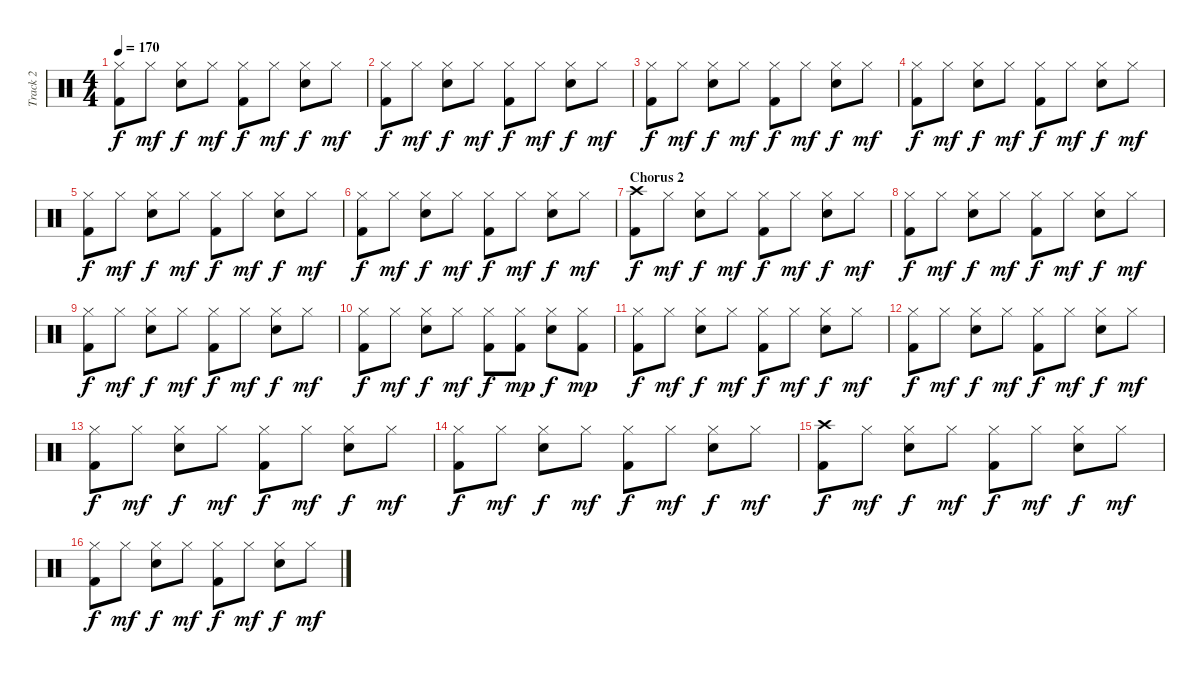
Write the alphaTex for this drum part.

\track ("Track 2" "Track 2") {instrument percussion}
\staff {score}
\articulation defaults
\ts (4 4)
\tempo 170
\clef neutral
\ks c
("Hi-Hat (closed)" "Kick (hit) 2").8{dy f} "Hi-Hat (closed)".8{dy mf} ("Hi-Hat (closed)" "Electric Snare (hit)").8{dy f} "Hi-Hat (closed)".8{dy mf} ("Hi-Hat (closed)" "Kick (hit) 2").8{dy f} "Hi-Hat (closed)".8{dy mf} ("Hi-Hat (closed)" "Electric Snare (hit)").8{dy f} "Hi-Hat (closed)".8{dy mf} |
("Hi-Hat (closed)" "Kick (hit) 2").8{dy f} "Hi-Hat (closed)".8{dy mf} ("Hi-Hat (closed)" "Electric Snare (hit)").8{dy f} "Hi-Hat (closed)".8{dy mf} ("Hi-Hat (closed)" "Kick (hit) 2").8{dy f} "Hi-Hat (closed)".8{dy mf} ("Hi-Hat (closed)" "Electric Snare (hit)").8{dy f} "Hi-Hat (closed)".8{dy mf} |
("Hi-Hat (closed)" "Kick (hit) 2").8{dy f} "Hi-Hat (closed)".8{dy mf} ("Hi-Hat (closed)" "Electric Snare (hit)").8{dy f} "Hi-Hat (closed)".8{dy mf} ("Hi-Hat (closed)" "Kick (hit) 2").8{dy f} "Hi-Hat (closed)".8{dy mf} ("Hi-Hat (closed)" "Electric Snare (hit)").8{dy f} "Hi-Hat (closed)".8{dy mf} |
("Hi-Hat (closed)" "Kick (hit) 2").8{dy f} "Hi-Hat (closed)".8{dy mf} ("Hi-Hat (closed)" "Electric Snare (hit)").8{dy f} "Hi-Hat (closed)".8{dy mf} ("Hi-Hat (closed)" "Kick (hit) 2").8{dy f} "Hi-Hat (closed)".8{dy mf} ("Hi-Hat (closed)" "Electric Snare (hit)").8{dy f} "Hi-Hat (closed)".8{dy mf} |
("Hi-Hat (closed)" "Kick (hit) 2").8{dy f} "Hi-Hat (closed)".8{dy mf} ("Hi-Hat (closed)" "Electric Snare (hit)").8{dy f} "Hi-Hat (closed)".8{dy mf} ("Hi-Hat (closed)" "Kick (hit) 2").8{dy f} "Hi-Hat (closed)".8{dy mf} ("Hi-Hat (closed)" "Electric Snare (hit)").8{dy f} "Hi-Hat (closed)".8{dy mf} |
("Hi-Hat (closed)" "Kick (hit) 2").8{dy f} "Hi-Hat (closed)".8{dy mf} ("Hi-Hat (closed)" "Electric Snare (hit)").8{dy f} "Hi-Hat (closed)".8{dy mf} ("Hi-Hat (closed)" "Kick (hit) 2").8{dy f} "Hi-Hat (closed)".8{dy mf} ("Hi-Hat (closed)" "Electric Snare (hit)").8{dy f} "Hi-Hat (closed)".8{dy mf} |
\section ("" "Chorus 2")
("Crash high (hit)" "Kick (hit) 2").8{dy f} "Hi-Hat (closed)".8{dy mf} ("Hi-Hat (closed)" "Electric Snare (hit)").8{dy f} "Hi-Hat (closed)".8{dy mf} ("Hi-Hat (closed)" "Kick (hit) 2").8{dy f} "Hi-Hat (closed)".8{dy mf} ("Hi-Hat (closed)" "Electric Snare (hit)").8{dy f} "Hi-Hat (closed)".8{dy mf} |
("Hi-Hat (closed)" "Kick (hit) 2").8{dy f} "Hi-Hat (closed)".8{dy mf} ("Hi-Hat (closed)" "Electric Snare (hit)").8{dy f} "Hi-Hat (closed)".8{dy mf} ("Hi-Hat (closed)" "Kick (hit) 2").8{dy f} "Hi-Hat (closed)".8{dy mf} ("Hi-Hat (closed)" "Electric Snare (hit)").8{dy f} "Hi-Hat (closed)".8{dy mf} |
("Hi-Hat (closed)" "Kick (hit) 2").8{dy f} "Hi-Hat (closed)".8{dy mf} ("Hi-Hat (closed)" "Electric Snare (hit)").8{dy f} "Hi-Hat (closed)".8{dy mf} ("Hi-Hat (closed)" "Kick (hit) 2").8{dy f} "Hi-Hat (closed)".8{dy mf} ("Hi-Hat (closed)" "Electric Snare (hit)").8{dy f} "Hi-Hat (closed)".8{dy mf} |
("Hi-Hat (closed)" "Kick (hit) 2").8{dy f} "Hi-Hat (closed)".8{dy mf} ("Hi-Hat (closed)" "Electric Snare (hit)").8{dy f} "Hi-Hat (closed)".8{dy mf} ("Hi-Hat (closed)" "Kick (hit) 2").8{dy f} ("Hi-Hat (closed)" "Kick (hit) 2").8{dy mp} ("Hi-Hat (closed)" "Electric Snare (hit)").8{dy f} ("Hi-Hat (closed)" "Kick (hit) 2").8{dy mp} |
("Hi-Hat (closed)" "Kick (hit) 2").8{dy f} "Hi-Hat (closed)".8{dy mf} ("Hi-Hat (closed)" "Electric Snare (hit)").8{dy f} "Hi-Hat (closed)".8{dy mf} ("Hi-Hat (closed)" "Kick (hit) 2").8{dy f} "Hi-Hat (closed)".8{dy mf} ("Hi-Hat (closed)" "Electric Snare (hit)").8{dy f} "Hi-Hat (closed)".8{dy mf} |
("Hi-Hat (closed)" "Kick (hit) 2").8{dy f} "Hi-Hat (closed)".8{dy mf} ("Hi-Hat (closed)" "Electric Snare (hit)").8{dy f} "Hi-Hat (closed)".8{dy mf} ("Hi-Hat (closed)" "Kick (hit) 2").8{dy f} "Hi-Hat (closed)".8{dy mf} ("Hi-Hat (closed)" "Electric Snare (hit)").8{dy f} "Hi-Hat (closed)".8{dy mf} |
("Hi-Hat (closed)" "Kick (hit) 2").8{dy f} "Hi-Hat (closed)".8{dy mf} ("Hi-Hat (closed)" "Electric Snare (hit)").8{dy f} "Hi-Hat (closed)".8{dy mf} ("Hi-Hat (closed)" "Kick (hit) 2").8{dy f} "Hi-Hat (closed)".8{dy mf} ("Hi-Hat (closed)" "Electric Snare (hit)").8{dy f} "Hi-Hat (closed)".8{dy mf} |
("Hi-Hat (closed)" "Kick (hit) 2").8{dy f} "Hi-Hat (closed)".8{dy mf} ("Hi-Hat (closed)" "Electric Snare (hit)").8{dy f} "Hi-Hat (closed)".8{dy mf} ("Hi-Hat (closed)" "Kick (hit) 2").8{dy f} "Hi-Hat (closed)".8{dy mf} ("Hi-Hat (closed)" "Electric Snare (hit)").8{dy f} "Hi-Hat (closed)".8{dy mf} |
("Crash high (hit)" "Kick (hit) 2").8{dy f} "Hi-Hat (closed)".8{dy mf} ("Hi-Hat (closed)" "Electric Snare (hit)").8{dy f} "Hi-Hat (closed)".8{dy mf} ("Hi-Hat (closed)" "Kick (hit) 2").8{dy f} "Hi-Hat (closed)".8{dy mf} ("Hi-Hat (closed)" "Electric Snare (hit)").8{dy f} "Hi-Hat (closed)".8{dy mf} |
("Hi-Hat (closed)" "Kick (hit) 2").8{dy f} "Hi-Hat (closed)".8{dy mf} ("Hi-Hat (closed)" "Electric Snare (hit)").8{dy f} "Hi-Hat (closed)".8{dy mf} ("Hi-Hat (closed)" "Kick (hit) 2").8{dy f} "Hi-Hat (closed)".8{dy mf} ("Hi-Hat (closed)" "Electric Snare (hit)").8{dy f} "Hi-Hat (closed)".8{dy mf}
